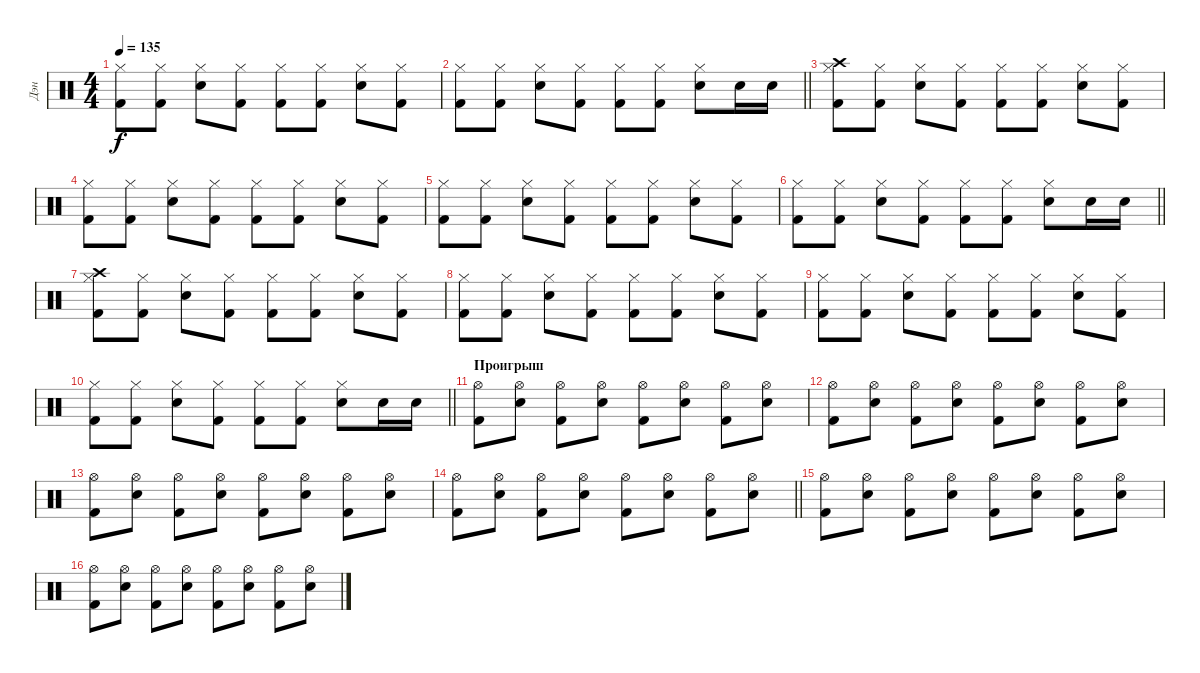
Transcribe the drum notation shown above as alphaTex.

\track ("Дэн" "Дэн") {instrument percussion}
\staff {score}
\articulation defaults
\ts (4 4)
\tempo 135
\clef neutral
\ks c
("Kick (hit) 2" "Hi-Hat (closed)").8{dy f} ("Kick (hit) 2" "Hi-Hat (closed)").8 ("Electric Snare (hit)" "Hi-Hat (closed)").8 ("Kick (hit) 2" "Hi-Hat (closed)").8 ("Kick (hit) 2" "Hi-Hat (closed)").8 ("Kick (hit) 2" "Hi-Hat (closed)").8 ("Electric Snare (hit)" "Hi-Hat (closed)").8 ("Kick (hit) 2" "Hi-Hat (closed)").8 |
\barLineRight lightlight
("Kick (hit) 2" "Hi-Hat (closed)").8 ("Kick (hit) 2" "Hi-Hat (closed)").8 ("Electric Snare (hit)" "Hi-Hat (closed)").8 ("Kick (hit) 2" "Hi-Hat (closed)").8 ("Kick (hit) 2" "Hi-Hat (closed)").8 ("Kick (hit) 2" "Hi-Hat (closed)").8 ("Electric Snare (hit)" "Hi-Hat (closed)").8 "Electric Snare (hit)".16 "Electric Snare (hit)".16 |
("Kick (hit) 2" "Crash high (hit)" "Hi-Hat (closed)").8 ("Kick (hit) 2" "Hi-Hat (closed)").8 ("Electric Snare (hit)" "Hi-Hat (closed)").8 ("Kick (hit) 2" "Hi-Hat (closed)").8 ("Kick (hit) 2" "Hi-Hat (closed)").8 ("Kick (hit) 2" "Hi-Hat (closed)").8 ("Electric Snare (hit)" "Hi-Hat (closed)").8 ("Kick (hit) 2" "Hi-Hat (closed)").8 |
("Kick (hit) 2" "Hi-Hat (closed)").8 ("Kick (hit) 2" "Hi-Hat (closed)").8 ("Electric Snare (hit)" "Hi-Hat (closed)").8 ("Kick (hit) 2" "Hi-Hat (closed)").8 ("Kick (hit) 2" "Hi-Hat (closed)").8 ("Kick (hit) 2" "Hi-Hat (closed)").8 ("Electric Snare (hit)" "Hi-Hat (closed)").8 ("Kick (hit) 2" "Hi-Hat (closed)").8 |
("Kick (hit) 2" "Hi-Hat (closed)").8 ("Kick (hit) 2" "Hi-Hat (closed)").8 ("Electric Snare (hit)" "Hi-Hat (closed)").8 ("Kick (hit) 2" "Hi-Hat (closed)").8 ("Kick (hit) 2" "Hi-Hat (closed)").8 ("Kick (hit) 2" "Hi-Hat (closed)").8 ("Electric Snare (hit)" "Hi-Hat (closed)").8 ("Kick (hit) 2" "Hi-Hat (closed)").8 |
\barLineRight lightlight
("Kick (hit) 2" "Hi-Hat (closed)").8 ("Kick (hit) 2" "Hi-Hat (closed)").8 ("Electric Snare (hit)" "Hi-Hat (closed)").8 ("Kick (hit) 2" "Hi-Hat (closed)").8 ("Kick (hit) 2" "Hi-Hat (closed)").8 ("Kick (hit) 2" "Hi-Hat (closed)").8 ("Electric Snare (hit)" "Hi-Hat (closed)").8 "Electric Snare (hit)".16 "Electric Snare (hit)".16 |
("Kick (hit) 2" "Crash high (hit)" "Hi-Hat (closed)").8 ("Kick (hit) 2" "Hi-Hat (closed)").8 ("Electric Snare (hit)" "Hi-Hat (closed)").8 ("Kick (hit) 2" "Hi-Hat (closed)").8 ("Kick (hit) 2" "Hi-Hat (closed)").8 ("Kick (hit) 2" "Hi-Hat (closed)").8 ("Electric Snare (hit)" "Hi-Hat (closed)").8 ("Kick (hit) 2" "Hi-Hat (closed)").8 |
("Kick (hit) 2" "Hi-Hat (closed)").8 ("Kick (hit) 2" "Hi-Hat (closed)").8 ("Electric Snare (hit)" "Hi-Hat (closed)").8 ("Kick (hit) 2" "Hi-Hat (closed)").8 ("Kick (hit) 2" "Hi-Hat (closed)").8 ("Kick (hit) 2" "Hi-Hat (closed)").8 ("Electric Snare (hit)" "Hi-Hat (closed)").8 ("Kick (hit) 2" "Hi-Hat (closed)").8 |
("Kick (hit) 2" "Hi-Hat (closed)").8 ("Kick (hit) 2" "Hi-Hat (closed)").8 ("Electric Snare (hit)" "Hi-Hat (closed)").8 ("Kick (hit) 2" "Hi-Hat (closed)").8 ("Kick (hit) 2" "Hi-Hat (closed)").8 ("Kick (hit) 2" "Hi-Hat (closed)").8 ("Electric Snare (hit)" "Hi-Hat (closed)").8 ("Kick (hit) 2" "Hi-Hat (closed)").8 |
\barLineRight lightlight
("Kick (hit) 2" "Hi-Hat (closed)").8 ("Kick (hit) 2" "Hi-Hat (closed)").8 ("Electric Snare (hit)" "Hi-Hat (closed)").8 ("Kick (hit) 2" "Hi-Hat (closed)").8 ("Kick (hit) 2" "Hi-Hat (closed)").8 ("Kick (hit) 2" "Hi-Hat (closed)").8 ("Electric Snare (hit)" "Hi-Hat (closed)").8 "Electric Snare (hit)".16 "Electric Snare (hit)".16 |
\section ("" "Проигрыш")
("Hi-Hat (open)" "Kick (hit) 2").8 ("Hi-Hat (open)" "Snare (hit) 2").8 ("Hi-Hat (open)" "Kick (hit) 2").8 ("Hi-Hat (open)" "Snare (hit) 2").8 ("Hi-Hat (open)" "Kick (hit) 2").8 ("Hi-Hat (open)" "Snare (hit) 2").8 ("Hi-Hat (open)" "Kick (hit) 2").8 ("Hi-Hat (open)" "Snare (hit) 2").8 |
("Hi-Hat (open)" "Kick (hit) 2").8 ("Hi-Hat (open)" "Snare (hit) 2").8 ("Hi-Hat (open)" "Kick (hit) 2").8 ("Hi-Hat (open)" "Snare (hit) 2").8 ("Hi-Hat (open)" "Kick (hit) 2").8 ("Hi-Hat (open)" "Snare (hit) 2").8 ("Hi-Hat (open)" "Kick (hit) 2").8 ("Hi-Hat (open)" "Snare (hit) 2").8 |
("Hi-Hat (open)" "Kick (hit) 2").8 ("Hi-Hat (open)" "Snare (hit) 2").8 ("Hi-Hat (open)" "Kick (hit) 2").8 ("Hi-Hat (open)" "Snare (hit) 2").8 ("Hi-Hat (open)" "Kick (hit) 2").8 ("Hi-Hat (open)" "Snare (hit) 2").8 ("Hi-Hat (open)" "Kick (hit) 2").8 ("Hi-Hat (open)" "Snare (hit) 2").8 |
\barLineRight lightlight
("Hi-Hat (open)" "Kick (hit) 2").8 ("Hi-Hat (open)" "Snare (hit) 2").8 ("Hi-Hat (open)" "Kick (hit) 2").8 ("Hi-Hat (open)" "Snare (hit) 2").8 ("Hi-Hat (open)" "Kick (hit) 2").8 ("Hi-Hat (open)" "Snare (hit) 2").8 ("Hi-Hat (open)" "Kick (hit) 2").8 ("Hi-Hat (open)" "Snare (hit) 2").8 |
("Hi-Hat (open)" "Kick (hit) 2").8 ("Hi-Hat (open)" "Snare (hit) 2").8 ("Hi-Hat (open)" "Kick (hit) 2").8 ("Hi-Hat (open)" "Snare (hit) 2").8 ("Hi-Hat (open)" "Kick (hit) 2").8 ("Hi-Hat (open)" "Snare (hit) 2").8 ("Hi-Hat (open)" "Kick (hit) 2").8 ("Hi-Hat (open)" "Snare (hit) 2").8 |
("Hi-Hat (open)" "Kick (hit) 2").8 ("Hi-Hat (open)" "Snare (hit) 2").8 ("Hi-Hat (open)" "Kick (hit) 2").8 ("Hi-Hat (open)" "Snare (hit) 2").8 ("Hi-Hat (open)" "Kick (hit) 2").8 ("Hi-Hat (open)" "Snare (hit) 2").8 ("Hi-Hat (open)" "Kick (hit) 2").8 ("Hi-Hat (open)" "Snare (hit) 2").8
